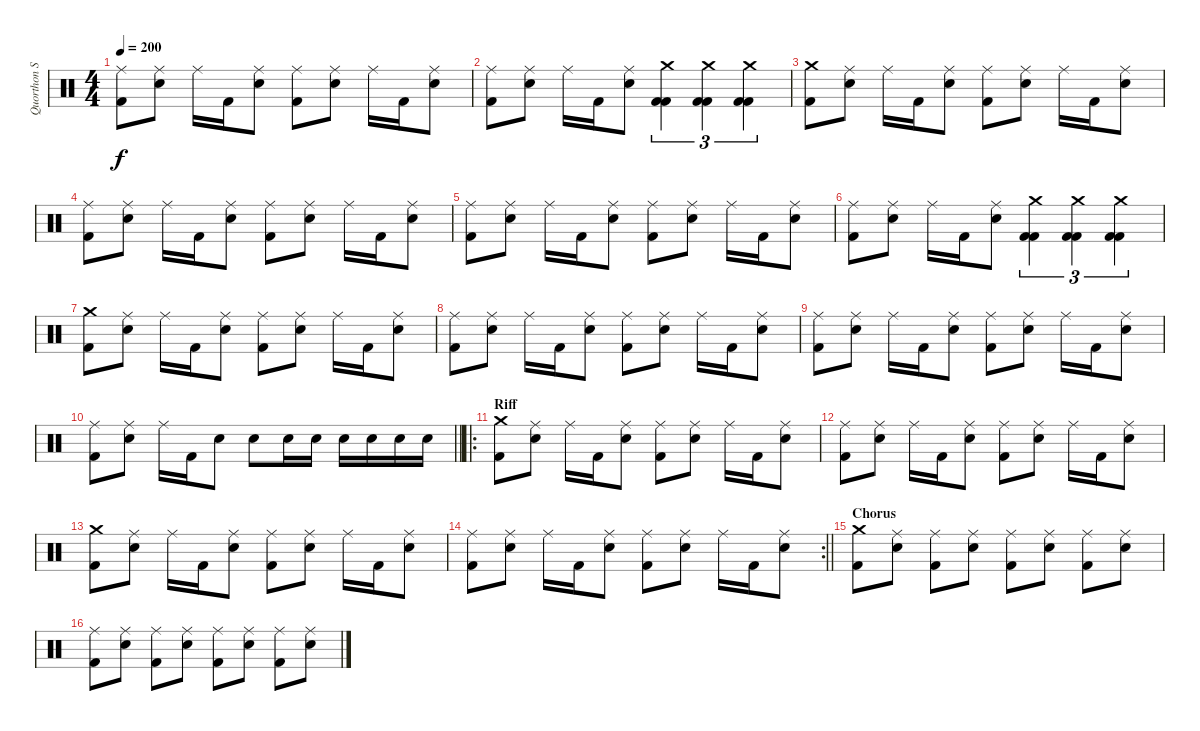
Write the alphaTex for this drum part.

\track ("Quorthon Seth" "Quorthon S") {instrument percussion}
\staff {score}
\articulation defaults
\ts (4 4)
\tempo 200
\clef neutral
\ks c
("Ride (middle)" "Kick (hit) 2").8{dy f} ("Ride (middle)" "Snare (hit) 2").8 "Ride (middle)".16 "Kick (hit) 2".16 ("Ride (middle)" "Snare (hit) 2").8 ("Ride (middle)" "Kick (hit) 2").8 ("Ride (middle)" "Snare (hit) 2").8 "Ride (middle)".16 "Kick (hit) 2".16 ("Ride (middle)" "Snare (hit) 2").8 |
("Ride (middle)" "Kick (hit) 2").8 ("Ride (middle)" "Snare (hit) 2").8 "Ride (middle)".16 "Kick (hit) 2".16 ("Ride (middle)" "Snare (hit) 2").8 ("Crash medium (hit)" "Kick (hit) 2" "Kick (hit) 2").4{tu (3 2)} ("Crash medium (hit)" "Kick (hit) 2" "Kick (hit) 2").4{tu (3 2)} ("Crash medium (hit)" "Kick (hit) 2" "Kick (hit) 2").4{tu (3 2)} |
("Crash medium (hit)" "Kick (hit) 2").8 ("Ride (middle)" "Snare (hit) 2").8 "Ride (middle)".16 "Kick (hit) 2".16 ("Ride (middle)" "Snare (hit) 2").8 ("Ride (middle)" "Kick (hit) 2").8 ("Ride (middle)" "Snare (hit) 2").8 "Ride (middle)".16 "Kick (hit) 2".16 ("Ride (middle)" "Snare (hit) 2").8 |
("Ride (middle)" "Kick (hit) 2").8 ("Ride (middle)" "Snare (hit) 2").8 "Ride (middle)".16 "Kick (hit) 2".16 ("Ride (middle)" "Snare (hit) 2").8 ("Ride (middle)" "Kick (hit) 2").8 ("Ride (middle)" "Snare (hit) 2").8 "Ride (middle)".16 "Kick (hit) 2".16 ("Ride (middle)" "Snare (hit) 2").8 |
("Ride (middle)" "Kick (hit) 2").8 ("Ride (middle)" "Snare (hit) 2").8 "Ride (middle)".16 "Kick (hit) 2".16 ("Ride (middle)" "Snare (hit) 2").8 ("Ride (middle)" "Kick (hit) 2").8 ("Ride (middle)" "Snare (hit) 2").8 "Ride (middle)".16 "Kick (hit) 2".16 ("Ride (middle)" "Snare (hit) 2").8 |
("Ride (middle)" "Kick (hit) 2").8 ("Ride (middle)" "Snare (hit) 2").8 "Ride (middle)".16 "Kick (hit) 2".16 ("Ride (middle)" "Snare (hit) 2").8 ("Crash medium (hit)" "Kick (hit) 2" "Kick (hit) 2").4{tu (3 2)} ("Crash medium (hit)" "Kick (hit) 2" "Kick (hit) 2").4{tu (3 2)} ("Crash medium (hit)" "Kick (hit) 2" "Kick (hit) 2").4{tu (3 2)} |
("Crash medium (hit)" "Kick (hit) 2").8 ("Ride (middle)" "Snare (hit) 2").8 "Ride (middle)".16 "Kick (hit) 2".16 ("Ride (middle)" "Snare (hit) 2").8 ("Ride (middle)" "Kick (hit) 2").8 ("Ride (middle)" "Snare (hit) 2").8 "Ride (middle)".16 "Kick (hit) 2".16 ("Ride (middle)" "Snare (hit) 2").8 |
("Ride (middle)" "Kick (hit) 2").8 ("Ride (middle)" "Snare (hit) 2").8 "Ride (middle)".16 "Kick (hit) 2".16 ("Ride (middle)" "Snare (hit) 2").8 ("Ride (middle)" "Kick (hit) 2").8 ("Ride (middle)" "Snare (hit) 2").8 "Ride (middle)".16 "Kick (hit) 2".16 ("Ride (middle)" "Snare (hit) 2").8 |
("Ride (middle)" "Kick (hit) 2").8 ("Ride (middle)" "Snare (hit) 2").8 "Ride (middle)".16 "Kick (hit) 2".16 ("Ride (middle)" "Snare (hit) 2").8 ("Ride (middle)" "Kick (hit) 2").8 ("Ride (middle)" "Snare (hit) 2").8 "Ride (middle)".16 "Kick (hit) 2".16 ("Ride (middle)" "Snare (hit) 2").8 |
\barLineRight lightlight
("Ride (middle)" "Kick (hit) 2").8 ("Ride (middle)" "Snare (hit) 2").8 "Ride (middle)".16 "Kick (hit) 2".16 "Snare (hit) 2".8 "Snare (hit) 2".8 "Snare (hit) 2".16 "Snare (hit) 2".16 "Snare (hit) 2".16 "Snare (hit) 2".16 "Snare (hit) 2".16 "Snare (hit) 2".16 |
\ro
\section ("" "Riff")
("Crash medium (hit)" "Kick (hit) 2").8 ("Ride (middle)" "Snare (hit) 2").8 "Ride (middle)".16 "Kick (hit) 2".16 ("Ride (middle)" "Snare (hit) 2").8 ("Ride (middle)" "Kick (hit) 2").8 ("Ride (middle)" "Snare (hit) 2").8 "Ride (middle)".16 "Kick (hit) 2".16 ("Ride (middle)" "Snare (hit) 2").8 |
("Ride (middle)" "Kick (hit) 2").8 ("Ride (middle)" "Snare (hit) 2").8 "Ride (middle)".16 "Kick (hit) 2".16 ("Ride (middle)" "Snare (hit) 2").8 ("Ride (middle)" "Kick (hit) 2").8 ("Ride (middle)" "Snare (hit) 2").8 "Ride (middle)".16 "Kick (hit) 2".16 ("Ride (middle)" "Snare (hit) 2").8 |
("Crash medium (hit)" "Kick (hit) 2").8 ("Ride (middle)" "Snare (hit) 2").8 "Ride (middle)".16 "Kick (hit) 2".16 ("Ride (middle)" "Snare (hit) 2").8 ("Ride (middle)" "Kick (hit) 2").8 ("Ride (middle)" "Snare (hit) 2").8 "Ride (middle)".16 "Kick (hit) 2".16 ("Ride (middle)" "Snare (hit) 2").8 |
\rc 2
\barLineRight lightlight
("Ride (middle)" "Kick (hit) 2").8 ("Ride (middle)" "Snare (hit) 2").8 "Ride (middle)".16 "Kick (hit) 2".16 ("Ride (middle)" "Snare (hit) 2").8 ("Ride (middle)" "Kick (hit) 2").8 ("Ride (middle)" "Snare (hit) 2").8 "Ride (middle)".16 "Kick (hit) 2".16 ("Ride (middle)" "Snare (hit) 2").8 |
\section ("" "Chorus")
("Crash medium (hit)" "Kick (hit) 2").8 ("Ride (middle)" "Snare (hit) 2").8 ("Ride (middle)" "Kick (hit) 2").8 ("Ride (middle)" "Snare (hit) 2").8 ("Ride (middle)" "Kick (hit) 2").8 ("Ride (middle)" "Snare (hit) 2").8 ("Ride (middle)" "Kick (hit) 2").8 ("Ride (middle)" "Snare (hit) 2").8 |
("Ride (middle)" "Kick (hit) 2").8 ("Ride (middle)" "Snare (hit) 2").8 ("Ride (middle)" "Kick (hit) 2").8 ("Ride (middle)" "Snare (hit) 2").8 ("Ride (middle)" "Kick (hit) 2").8 ("Ride (middle)" "Snare (hit) 2").8 ("Ride (middle)" "Kick (hit) 2").8 ("Ride (middle)" "Snare (hit) 2").8
